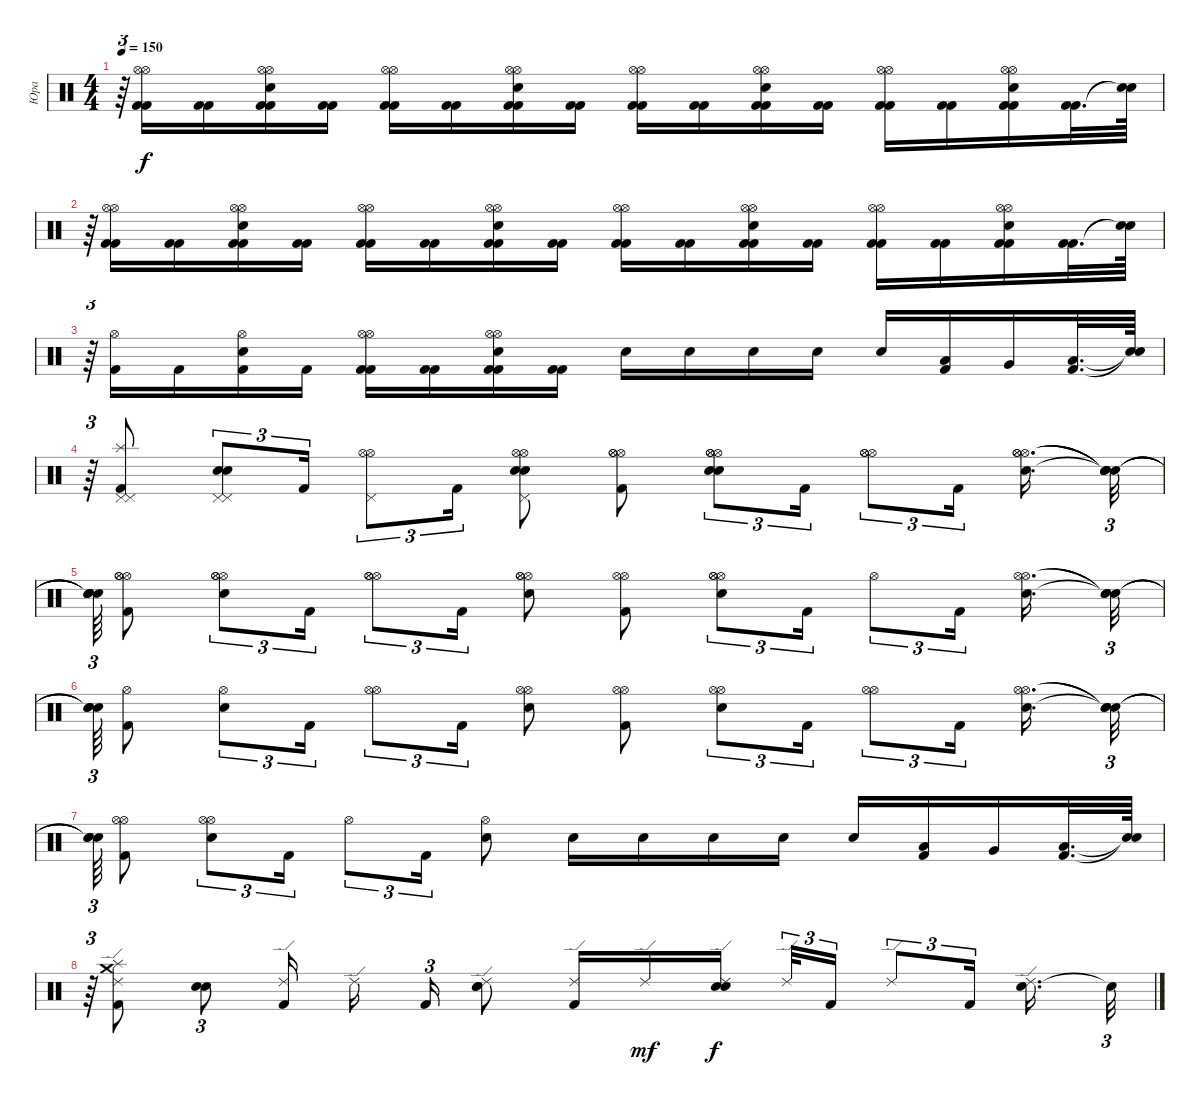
\track ("Юра" "Юра") {instrument percussion}
\staff {score}
\articulation defaults
\ts (4 4)
\tempo 150
\clef neutral
\ks c
r.64{tu (3 2) dy f} ("Kick (hit) 2" "Hi-Hat (open)" "Hi-Hat (open)" "Kick (hit) 2").16 ("Kick (hit) 2" "Kick (hit) 2").16 ("Kick (hit) 2" "Hi-Hat (open)" "Kick (hit) 2" "Electric Snare (hit)" "Hi-Hat (open)").16 ("Kick (hit) 2" "Kick (hit) 2").16 ("Hi-Hat (open)" "Kick (hit) 2" "Kick (hit) 2" "Hi-Hat (open)").16 ("Kick (hit) 2" "Kick (hit) 2").16 ("Kick (hit) 2" "Hi-Hat (open)" "Electric Snare (hit)" "Hi-Hat (open)" "Kick (hit) 2").16 ("Kick (hit) 2" "Kick (hit) 2").16 ("Hi-Hat (open)" "Kick (hit) 2" "Kick (hit) 2" "Hi-Hat (open)").16 ("Kick (hit) 2" "Kick (hit) 2").16 ("Kick (hit) 2" "Hi-Hat (open)" "Hi-Hat (open)" "Electric Snare (hit)" "Kick (hit) 2").16 ("Kick (hit) 2" "Kick (hit) 2").16 ("Hi-Hat (open)" "Hi-Hat (open)" "Kick (hit) 2" "Kick (hit) 2").16 ("Kick (hit) 2" "Kick (hit) 2").16 ("Hi-Hat (open)" "Hi-Hat (open)" "Kick (hit) 2" "Electric Snare (hit)" "Kick (hit) 2").16 ("Kick (hit) 2" "Kick (hit) 2").32{d} ("Snare (hit)"{t} "Snare (hit)"{t}).64 |
r.64{tu (3 2)} ("Kick (hit) 2" "Hi-Hat (open)" "Hi-Hat (open)" "Kick (hit) 2").16 ("Kick (hit) 2" "Kick (hit) 2").16 ("Electric Snare (hit)" "Kick (hit) 2" "Kick (hit) 2" "Hi-Hat (open)" "Hi-Hat (open)").16 ("Kick (hit) 2" "Kick (hit) 2").16 ("Hi-Hat (open)" "Kick (hit) 2" "Hi-Hat (open)" "Kick (hit) 2").16 ("Kick (hit) 2" "Kick (hit) 2").16 ("Hi-Hat (open)" "Hi-Hat (open)" "Kick (hit) 2" "Electric Snare (hit)" "Kick (hit) 2").16 ("Kick (hit) 2" "Kick (hit) 2").16 ("Hi-Hat (open)" "Kick (hit) 2" "Kick (hit) 2" "Hi-Hat (open)").16 ("Kick (hit) 2" "Kick (hit) 2").16 ("Hi-Hat (open)" "Kick (hit) 2" "Electric Snare (hit)" "Kick (hit) 2" "Hi-Hat (open)").16 ("Kick (hit) 2" "Kick (hit) 2").16 ("Kick (hit) 2" "Hi-Hat (open)" "Hi-Hat (open)" "Kick (hit) 2").16 ("Kick (hit) 2" "Kick (hit) 2").16 ("Kick (hit) 2" "Hi-Hat (open)" "Electric Snare (hit)" "Hi-Hat (open)" "Kick (hit) 2").16 ("Kick (hit) 2" "Kick (hit) 2").32{d} ("Snare (hit)"{t} "Snare (hit)"{t}).64 |
r.64{tu (3 2)} ("Kick (hit) 2" "Hi-Hat (open)").16 "Kick (hit) 2".16 ("Kick (hit) 2" "Electric Snare (hit)" "Hi-Hat (open)").16 "Kick (hit) 2".16 ("Hi-Hat (open)" "Hi-Hat (open)" "Kick (hit) 2" "Kick (hit) 2").16 ("Kick (hit) 2" "Kick (hit) 2").16 ("Kick (hit) 2" "Hi-Hat (open)" "Electric Snare (hit)" "Kick (hit) 2" "Hi-Hat (open)").16 ("Kick (hit) 2" "Kick (hit) 2").16 "Electric Snare (hit)".16 "Electric Snare (hit)".16 "Electric Snare (hit)".16 "Electric Snare (hit)".16 "Electric Snare (hit)".16 ("Kick (hit) 2" "Low Tom (hit)").16 "Very Low Tom (hit)".16 ("Low Floor Tom (hit)" "Kick (hit) 2").32{d} ("Snare (hit)"{t} "Snare (hit)"{t}).64 |
r.64{tu (3 2)} ("Kick (hit) 2" "Splash (hit)" "Pedal Hi-Hat (hit)" "Pedal Hi-Hat (hit)").8 ("Electric Snare (hit)" "Pedal Hi-Hat (hit)" "Pedal Hi-Hat (hit)" "Electric Snare (hit)").8{tu (3 2)} "Kick (hit) 2".16{tu (3 2)} ("Hi-Hat (open)" "Pedal Hi-Hat (hit)" "Hi-Hat (open)").8{tu (3 2)} "Kick (hit) 2".16{tu (3 2)} ("Hi-Hat (open)" "Pedal Hi-Hat (hit)" "Hi-Hat (open)" "Electric Snare (hit)" "Electric Snare (hit)").8 ("Kick (hit) 2" "Hi-Hat (open)" "Hi-Hat (open)" "Hi-Hat (open)").8 ("Hi-Hat (open)" "Hi-Hat (open)" "Hi-Hat (open)" "Electric Snare (hit)" "Electric Snare (hit)").8{tu (3 2)} "Kick (hit) 2".16{tu (3 2)} ("Hi-Hat (open)" "Hi-Hat (open)" "Hi-Hat (open)").8{tu (3 2)} "Kick (hit) 2".16{tu (3 2) beam splitsecondary} ("Hi-Hat (open)" "Electric Snare (hit)" "Hi-Hat (open)" "Hi-Hat (open)").16{d} ("Snare (hit)"{t} "Snare (hit)"{t} "Snare (hit)"{t} "Snare (hit)"{t}).32{tu (3 2)} |
("Snare (hit)"{t} "Snare (hit)"{t} "Snare (hit)"{t} "Snare (hit)"{t}).64{tu (3 2)} ("Kick (hit) 2" "Hi-Hat (open)" "Hi-Hat (open)" "Hi-Hat (open)").8 ("Hi-Hat (open)" "Hi-Hat (open)" "Hi-Hat (open)" "Electric Snare (hit)").8{tu (3 2)} "Kick (hit) 2".16{tu (3 2)} ("Hi-Hat (open)" "Hi-Hat (open)" "Hi-Hat (open)").8{tu (3 2)} "Kick (hit) 2".16{tu (3 2)} ("Hi-Hat (open)" "Hi-Hat (open)" "Hi-Hat (open)" "Electric Snare (hit)").8 ("Kick (hit) 2" "Hi-Hat (open)" "Hi-Hat (open)").8 ("Electric Snare (hit)" "Hi-Hat (open)" "Hi-Hat (open)" "Hi-Hat (open)").8{tu (3 2)} "Kick (hit) 2".16{tu (3 2)} "Hi-Hat (open)".8{tu (3 2)} "Kick (hit) 2".16{tu (3 2) beam splitsecondary} ("Hi-Hat (open)" "Hi-Hat (open)" "Electric Snare (hit)").16{d} ("Snare (hit)"{t} "Snare (hit)"{t} "Snare (hit)"{t}).32{tu (3 2)} |
("Snare (hit)"{t} "Snare (hit)"{t} "Snare (hit)"{t}).64{tu (3 2)} ("Kick (hit) 2" "Hi-Hat (open)").8 ("Electric Snare (hit)" "Hi-Hat (open)").8{tu (3 2)} "Kick (hit) 2".16{tu (3 2)} ("Hi-Hat (open)" "Hi-Hat (open)").8{tu (3 2)} "Kick (hit) 2".16{tu (3 2)} ("Hi-Hat (open)" "Electric Snare (hit)" "Hi-Hat (open)").8 ("Kick (hit) 2" "Hi-Hat (open)" "Hi-Hat (open)").8 ("Hi-Hat (open)" "Hi-Hat (open)" "Electric Snare (hit)").8{tu (3 2)} "Kick (hit) 2".16{tu (3 2)} ("Hi-Hat (open)" "Hi-Hat (open)").8{tu (3 2)} "Kick (hit) 2".16{tu (3 2) beam splitsecondary} ("Hi-Hat (open)" "Electric Snare (hit)" "Hi-Hat (open)").16{d} ("Snare (hit)"{t} "Snare (hit)"{t} "Snare (hit)"{t}).32{tu (3 2)} |
("Snare (hit)"{t} "Snare (hit)"{t} "Snare (hit)"{t}).64{tu (3 2)} ("Kick (hit) 2" "Hi-Hat (open)" "Hi-Hat (open)").8 ("Electric Snare (hit)" "Hi-Hat (open)" "Hi-Hat (open)").8{tu (3 2)} "Kick (hit) 2".16{tu (3 2)} "Hi-Hat (open)".8{tu (3 2)} "Kick (hit) 2".16{tu (3 2)} ("Electric Snare (hit)" "Hi-Hat (open)").8 "Electric Snare (hit)".16 "Electric Snare (hit)".16 "Electric Snare (hit)".16 "Electric Snare (hit)".16 "Electric Snare (hit)".16 ("Kick (hit) 2" "Low Tom (hit)").16 "Very Low Tom (hit)".16 ("Low Floor Tom (hit)" "Kick (hit) 2").32{d} ("Snare (hit)"{t} "Snare (hit)"{t}).64 |
r.64{tu (3 2)} ("Ride (edge) 2" "Crash medium (hit)" "Kick (hit) 2" "Splash (hit)").8 ("Electric Snare (hit)" "Electric Snare (hit)").8{tu (3 2)} ("Ride (edge) 2" "Kick (hit) 2").16 "Ride (edge) 2".16{beam splitsecondary} "Kick (hit) 2".16{tu (3 2)} ("Ride (edge) 2" "Electric Snare (hit)" "Electric Snare (hit)").8 ("Ride (edge) 2" "Kick (hit) 2").16 "Ride (edge) 2".16{dy mf} ("Ride (edge) 2" "Electric Snare (hit)" "Electric Snare (hit)").16{dy f beam splitsecondary} "Ride (edge) 2".32{tu (3 2)} "Kick (hit) 2".16{tu (3 2)} "Ride (edge) 2".8{tu (3 2)} "Kick (hit) 2".16{tu (3 2) beam splitsecondary} ("Electric Snare (hit)" "Ride (edge) 2").16{d} "Snare (hit)"{t}.32{tu (3 2)}
